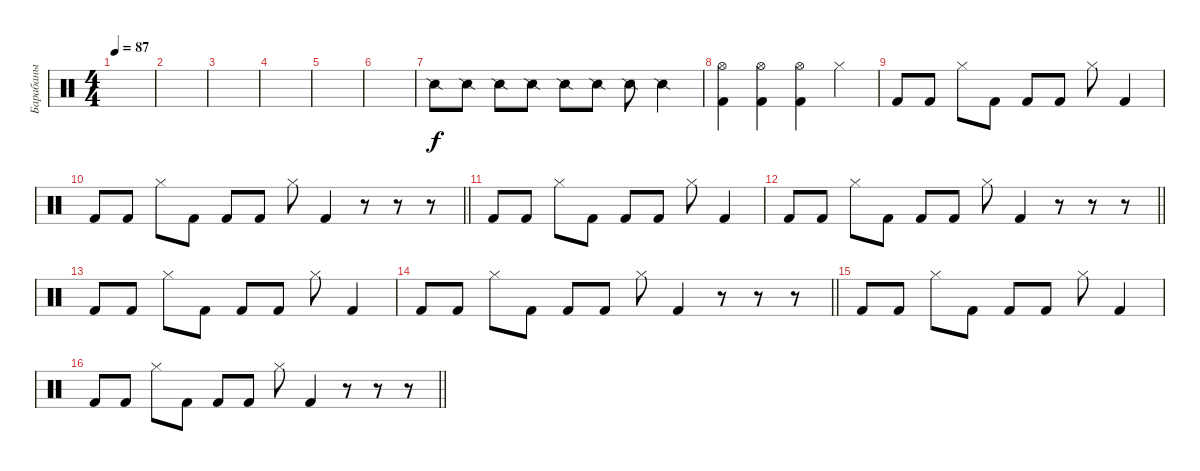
\track ("Барабаны" "Барабаны") {instrument percussion}
\staff {score}
\articulation defaults
\ts (4 4)
\tempo 87
\clef neutral
\ks c
|
|
|
|
|
|
"Snare (side stick) 2".8 "Snare (side stick) 2".8 "Snare (side stick) 2".8 "Snare (side stick) 2".8 "Snare (side stick) 2".8 "Snare (side stick) 2".8 "Snare (side stick) 2".8 "Snare (side stick) 2".4 |
("Kick (hit) 2" "Hi-Hat (open)").4 ("Kick (hit) 2" "Hi-Hat (open)").4 ("Kick (hit) 2" "Hi-Hat (open)").4 "Hi-Hat (closed)".4 |
"Kick (hit) 2".8 "Kick (hit) 2".8 "Hi-Hat (closed)".8 "Kick (hit) 2".8 "Kick (hit) 2".8 "Kick (hit) 2".8 "Hi-Hat (closed)".8 "Kick (hit) 2".4 |
\barLineRight lightlight "Kick (hit) 2".8 "Kick (hit) 2".8 "Hi-Hat (closed)".8 "Kick (hit) 2".8 "Kick (hit) 2".8 "Kick (hit) 2".8 "Hi-Hat (closed)".8 "Kick (hit) 2".4
r.8 r.8 r.8 |
"Kick (hit) 2".8 "Kick (hit) 2".8 "Hi-Hat (closed)".8 "Kick (hit) 2".8 "Kick (hit) 2".8 "Kick (hit) 2".8 "Hi-Hat (closed)".8 "Kick (hit) 2".4 |
\barLineRight lightlight "Kick (hit) 2".8 "Kick (hit) 2".8 "Hi-Hat (closed)".8 "Kick (hit) 2".8 "Kick (hit) 2".8 "Kick (hit) 2".8 "Hi-Hat (closed)".8 "Kick (hit) 2".4
r.8 r.8 r.8 |
"Kick (hit) 2".8 "Kick (hit) 2".8 "Hi-Hat (closed)".8 "Kick (hit) 2".8 "Kick (hit) 2".8 "Kick (hit) 2".8 "Hi-Hat (closed)".8 "Kick (hit) 2".4 |
\barLineRight lightlight "Kick (hit) 2".8 "Kick (hit) 2".8 "Hi-Hat (closed)".8 "Kick (hit) 2".8 "Kick (hit) 2".8 "Kick (hit) 2".8 "Hi-Hat (closed)".8 "Kick (hit) 2".4
r.8 r.8 r.8 |
"Kick (hit) 2".8 "Kick (hit) 2".8 "Hi-Hat (closed)".8 "Kick (hit) 2".8 "Kick (hit) 2".8 "Kick (hit) 2".8 "Hi-Hat (closed)".8 "Kick (hit) 2".4 |
\barLineRight lightlight "Kick (hit) 2".8 "Kick (hit) 2".8 "Hi-Hat (closed)".8 "Kick (hit) 2".8 "Kick (hit) 2".8 "Kick (hit) 2".8 "Hi-Hat (closed)".8 "Kick (hit) 2".4
r.8 r.8 r.8
